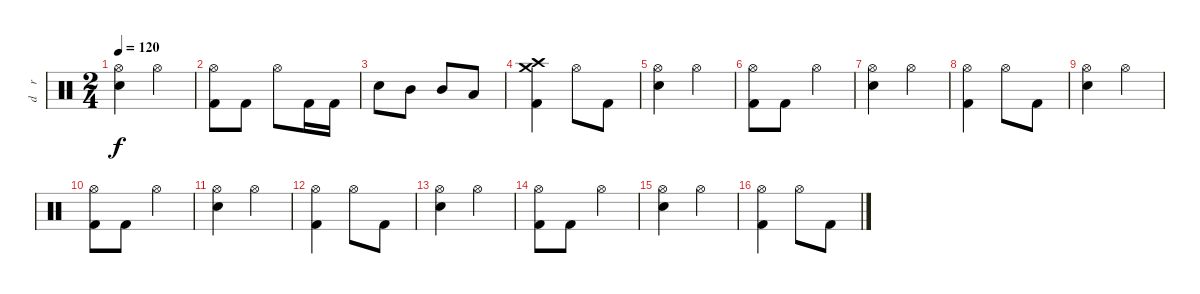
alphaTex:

\track ("d    r    u  m  s" "d    r    ") {instrument percussion}
\staff {score}
\articulation defaults
\ts (2 4)
\tempo 120
\clef neutral
\ks c
("Hi-Hat (open)" "Snare (hit) 2").4{dy f} "Hi-Hat (open)".4 |
("Hi-Hat (open)" "Kick (hit) 2").8 "Kick (hit) 2".8 "Hi-Hat (open)".8 "Kick (hit) 2".16 "Kick (hit) 2".16 |
"Snare (hit) 2".8 "Mid Tom (hit)".8 "Mid Tom (hit)".8 "Low Tom (hit)".8 |
("Crash high (hit)" "Crash medium (hit)" "Kick (hit) 2").4 "Hi-Hat (open)".8 "Kick (hit) 2".8 |
("Hi-Hat (open)" "Snare (hit) 2").4 "Hi-Hat (open)".4 |
("Hi-Hat (open)" "Kick (hit) 2").8 "Kick (hit) 2".8 "Hi-Hat (open)".4 |
("Hi-Hat (open)" "Snare (hit) 2").4 "Hi-Hat (open)".4 |
("Hi-Hat (open)" "Kick (hit) 2").4 "Hi-Hat (open)".8 "Kick (hit) 2".8 |
("Hi-Hat (open)" "Snare (hit) 2").4 "Hi-Hat (open)".4 |
("Hi-Hat (open)" "Kick (hit) 2").8 "Kick (hit) 2".8 "Hi-Hat (open)".4 |
("Hi-Hat (open)" "Snare (hit) 2").4 "Hi-Hat (open)".4 |
("Hi-Hat (open)" "Kick (hit) 2").4 "Hi-Hat (open)".8 "Kick (hit) 2".8 |
("Hi-Hat (open)" "Snare (hit) 2").4 "Hi-Hat (open)".4 |
("Hi-Hat (open)" "Kick (hit) 2").8 "Kick (hit) 2".8 "Hi-Hat (open)".4 |
("Hi-Hat (open)" "Snare (hit) 2").4 "Hi-Hat (open)".4 |
("Hi-Hat (open)" "Kick (hit) 2").4 "Hi-Hat (open)".8 "Kick (hit) 2".8
